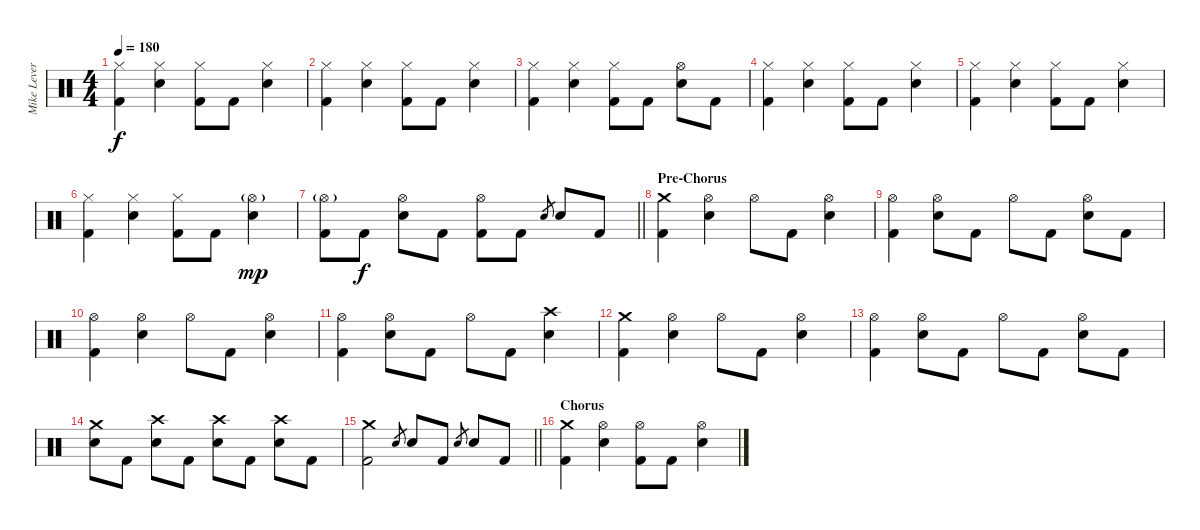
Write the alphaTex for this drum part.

\track ("Mike Leverence - Drums" "Mike Lever") {instrument percussion}
\staff {score}
\articulation defaults
\ts (4 4)
\tempo 180
\clef neutral
\ks c
("Hi-Hat (closed)" "Kick (hit) 2").4{dy f} ("Hi-Hat (closed)" "Electric Snare (hit)").4 ("Hi-Hat (closed)" "Kick (hit) 2").8 "Kick (hit) 2".8 ("Hi-Hat (closed)" "Electric Snare (hit)").4 |
("Hi-Hat (closed)" "Kick (hit) 2").4 ("Hi-Hat (closed)" "Electric Snare (hit)").4 ("Hi-Hat (closed)" "Kick (hit) 2").8 "Kick (hit) 2".8 ("Hi-Hat (closed)" "Electric Snare (hit)").4 |
("Hi-Hat (closed)" "Kick (hit) 2").4 ("Hi-Hat (closed)" "Electric Snare (hit)").4 ("Hi-Hat (closed)" "Kick (hit) 2").8 "Kick (hit) 2".8 ("Hi-Hat (open)" "Electric Snare (hit)").8 "Kick (hit) 2".8 |
("Hi-Hat (closed)" "Kick (hit) 2").4 ("Hi-Hat (closed)" "Electric Snare (hit)").4 ("Hi-Hat (closed)" "Kick (hit) 2").8 "Kick (hit) 2".8 ("Hi-Hat (closed)" "Electric Snare (hit)").4 |
("Hi-Hat (closed)" "Kick (hit) 2").4 ("Hi-Hat (closed)" "Electric Snare (hit)").4 ("Hi-Hat (closed)" "Kick (hit) 2").8 "Kick (hit) 2".8 ("Hi-Hat (closed)" "Electric Snare (hit)").4 |
("Hi-Hat (closed)" "Kick (hit) 2").4 ("Hi-Hat (closed)" "Electric Snare (hit)").4 ("Hi-Hat (closed)" "Kick (hit) 2").8 "Kick (hit) 2".8 ("Hi-Hat (open)"{g} "Electric Snare (hit)").4{dy mp} |
\barLineRight lightlight
("Hi-Hat (open)"{g} "Kick (hit) 2").8 "Kick (hit) 2".8{dy f} ("Hi-Hat (open)" "Electric Snare (hit)").8 "Kick (hit) 2".8 ("Hi-Hat (open)" "Kick (hit) 2").8 "Kick (hit) 2".8 "Electric Snare (hit)".8{gr} "Electric Snare (hit)".8 "Kick (hit) 2".8 |
\section ("" "Pre-Chorus")
("Crash medium (hit)" "Kick (hit) 2").4 ("Hi-Hat (open)" "Electric Snare (hit)").4 "Hi-Hat (open)".8 "Kick (hit) 2".8 ("Hi-Hat (open)" "Electric Snare (hit)").4 |
("Hi-Hat (open)" "Kick (hit) 2").4 ("Hi-Hat (open)" "Electric Snare (hit)").8 "Kick (hit) 2".8 "Hi-Hat (open)".8 "Kick (hit) 2".8 ("Hi-Hat (open)" "Electric Snare (hit)").8 "Kick (hit) 2".8 |
("Hi-Hat (open)" "Kick (hit) 2").4 ("Hi-Hat (open)" "Electric Snare (hit)").4 "Hi-Hat (open)".8 "Kick (hit) 2".8 ("Hi-Hat (open)" "Electric Snare (hit)").4 |
("Hi-Hat (open)" "Kick (hit) 2").4 ("Hi-Hat (open)" "Electric Snare (hit)").8 "Kick (hit) 2".8 "Hi-Hat (open)".8 "Kick (hit) 2".8 ("Crash high (hit)" "Electric Snare (hit)").4 |
("Crash medium (hit)" "Kick (hit) 2").4 ("Hi-Hat (open)" "Electric Snare (hit)").4 "Hi-Hat (open)".8 "Kick (hit) 2".8 ("Hi-Hat (open)" "Electric Snare (hit)").4 |
("Hi-Hat (open)" "Kick (hit) 2").4 ("Hi-Hat (open)" "Electric Snare (hit)").8 "Kick (hit) 2".8 "Hi-Hat (open)".8 "Kick (hit) 2".8 ("Hi-Hat (open)" "Electric Snare (hit)").8 "Kick (hit) 2".8 |
("Crash medium (hit)" "Electric Snare (hit)").8 "Kick (hit) 2".8 ("Crash high (hit)" "Electric Snare (hit)").8 "Kick (hit) 2".8 ("Crash high (hit)" "Electric Snare (hit)").8 "Kick (hit) 2".8 ("Crash high (hit)" "Electric Snare (hit)").8 "Kick (hit) 2".8 |
\barLineRight lightlight
("Crash medium (hit)" "Kick (hit) 2").2 "Electric Snare (hit)".8{gr} "Electric Snare (hit)".8 "Kick (hit) 2".8 "Electric Snare (hit)".8{gr} "Electric Snare (hit)".8 "Kick (hit) 2".8 |
\section ("" "Chorus")
("Crash medium (hit)" "Kick (hit) 2").4 ("Hi-Hat (open)" "Electric Snare (hit)").4 ("Hi-Hat (open)" "Kick (hit) 2").8 "Kick (hit) 2".8 ("Hi-Hat (open)" "Electric Snare (hit)").4
